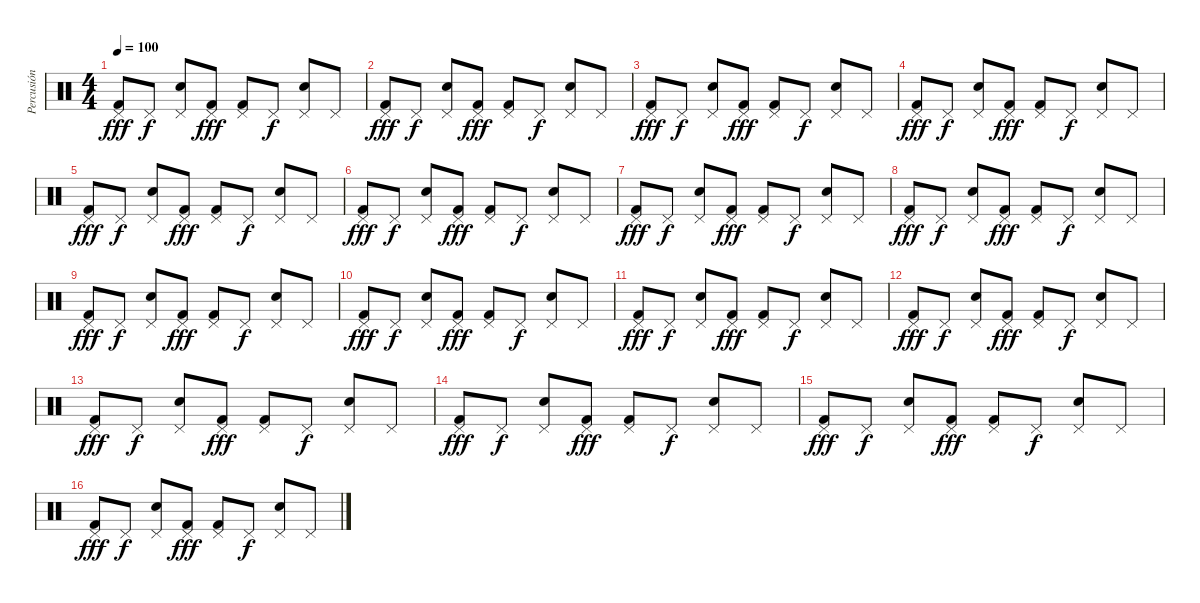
\track ("Percusión" "Percusión") {instrument percussion}
\staff {score}
\articulation defaults
\ts (4 4)
\tempo 100
\clef neutral
\ks c
("Pedal Hi-Hat (hit)" "Kick (hit) 2").8{dy fff} "Pedal Hi-Hat (hit)".8{dy f} ("Pedal Hi-Hat (hit)" "Snare (hit) 2").8 ("Pedal Hi-Hat (hit)" "Kick (hit) 2").8{dy fff} ("Pedal Hi-Hat (hit)" "Kick (hit) 2").8 "Pedal Hi-Hat (hit)".8{dy f} ("Pedal Hi-Hat (hit)" "Snare (hit) 2").8 "Pedal Hi-Hat (hit)".8 |
("Pedal Hi-Hat (hit)" "Kick (hit) 2").8{dy fff} "Pedal Hi-Hat (hit)".8{dy f} ("Pedal Hi-Hat (hit)" "Snare (hit) 2").8 ("Pedal Hi-Hat (hit)" "Kick (hit) 2").8{dy fff} ("Pedal Hi-Hat (hit)" "Kick (hit) 2").8 "Pedal Hi-Hat (hit)".8{dy f} ("Pedal Hi-Hat (hit)" "Snare (hit) 2").8 "Pedal Hi-Hat (hit)".8 |
("Pedal Hi-Hat (hit)" "Kick (hit) 2").8{dy fff} "Pedal Hi-Hat (hit)".8{dy f} ("Pedal Hi-Hat (hit)" "Snare (hit) 2").8 ("Pedal Hi-Hat (hit)" "Kick (hit) 2").8{dy fff} ("Pedal Hi-Hat (hit)" "Kick (hit) 2").8 "Pedal Hi-Hat (hit)".8{dy f} ("Pedal Hi-Hat (hit)" "Snare (hit) 2").8 "Pedal Hi-Hat (hit)".8 |
("Pedal Hi-Hat (hit)" "Kick (hit) 2").8{dy fff} "Pedal Hi-Hat (hit)".8{dy f} ("Pedal Hi-Hat (hit)" "Snare (hit) 2").8 ("Pedal Hi-Hat (hit)" "Kick (hit) 2").8{dy fff} ("Pedal Hi-Hat (hit)" "Kick (hit) 2").8 "Pedal Hi-Hat (hit)".8{dy f} ("Pedal Hi-Hat (hit)" "Snare (hit) 2").8 "Pedal Hi-Hat (hit)".8 |
("Pedal Hi-Hat (hit)" "Kick (hit) 2").8{dy fff} "Pedal Hi-Hat (hit)".8{dy f} ("Pedal Hi-Hat (hit)" "Snare (hit) 2").8 ("Pedal Hi-Hat (hit)" "Kick (hit) 2").8{dy fff} ("Pedal Hi-Hat (hit)" "Kick (hit) 2").8 "Pedal Hi-Hat (hit)".8{dy f} ("Pedal Hi-Hat (hit)" "Snare (hit) 2").8 "Pedal Hi-Hat (hit)".8 |
("Pedal Hi-Hat (hit)" "Kick (hit) 2").8{dy fff} "Pedal Hi-Hat (hit)".8{dy f} ("Pedal Hi-Hat (hit)" "Snare (hit) 2").8 ("Pedal Hi-Hat (hit)" "Kick (hit) 2").8{dy fff} ("Pedal Hi-Hat (hit)" "Kick (hit) 2").8 "Pedal Hi-Hat (hit)".8{dy f} ("Pedal Hi-Hat (hit)" "Snare (hit) 2").8 "Pedal Hi-Hat (hit)".8 |
("Pedal Hi-Hat (hit)" "Kick (hit) 2").8{dy fff} "Pedal Hi-Hat (hit)".8{dy f} ("Pedal Hi-Hat (hit)" "Snare (hit) 2").8 ("Pedal Hi-Hat (hit)" "Kick (hit) 2").8{dy fff} ("Pedal Hi-Hat (hit)" "Kick (hit) 2").8 "Pedal Hi-Hat (hit)".8{dy f} ("Pedal Hi-Hat (hit)" "Snare (hit) 2").8 "Pedal Hi-Hat (hit)".8 |
("Pedal Hi-Hat (hit)" "Kick (hit) 2").8{dy fff} "Pedal Hi-Hat (hit)".8{dy f} ("Pedal Hi-Hat (hit)" "Snare (hit) 2").8 ("Pedal Hi-Hat (hit)" "Kick (hit) 2").8{dy fff} ("Pedal Hi-Hat (hit)" "Kick (hit) 2").8 "Pedal Hi-Hat (hit)".8{dy f} ("Pedal Hi-Hat (hit)" "Snare (hit) 2").8 "Pedal Hi-Hat (hit)".8 |
("Pedal Hi-Hat (hit)" "Kick (hit) 2").8{dy fff} "Pedal Hi-Hat (hit)".8{dy f} ("Pedal Hi-Hat (hit)" "Snare (hit) 2").8 ("Pedal Hi-Hat (hit)" "Kick (hit) 2").8{dy fff} ("Pedal Hi-Hat (hit)" "Kick (hit) 2").8 "Pedal Hi-Hat (hit)".8{dy f} ("Pedal Hi-Hat (hit)" "Snare (hit) 2").8 "Pedal Hi-Hat (hit)".8 |
("Pedal Hi-Hat (hit)" "Kick (hit) 2").8{dy fff} "Pedal Hi-Hat (hit)".8{dy f} ("Pedal Hi-Hat (hit)" "Snare (hit) 2").8 ("Pedal Hi-Hat (hit)" "Kick (hit) 2").8{dy fff} ("Pedal Hi-Hat (hit)" "Kick (hit) 2").8 "Pedal Hi-Hat (hit)".8{dy f} ("Pedal Hi-Hat (hit)" "Snare (hit) 2").8 "Pedal Hi-Hat (hit)".8 |
("Pedal Hi-Hat (hit)" "Kick (hit) 2").8{dy fff} "Pedal Hi-Hat (hit)".8{dy f} ("Pedal Hi-Hat (hit)" "Snare (hit) 2").8 ("Pedal Hi-Hat (hit)" "Kick (hit) 2").8{dy fff} ("Pedal Hi-Hat (hit)" "Kick (hit) 2").8 "Pedal Hi-Hat (hit)".8{dy f} ("Pedal Hi-Hat (hit)" "Snare (hit) 2").8 "Pedal Hi-Hat (hit)".8 |
("Pedal Hi-Hat (hit)" "Kick (hit) 2").8{dy fff} "Pedal Hi-Hat (hit)".8{dy f} ("Pedal Hi-Hat (hit)" "Snare (hit) 2").8 ("Pedal Hi-Hat (hit)" "Kick (hit) 2").8{dy fff} ("Pedal Hi-Hat (hit)" "Kick (hit) 2").8 "Pedal Hi-Hat (hit)".8{dy f} ("Pedal Hi-Hat (hit)" "Snare (hit) 2").8 "Pedal Hi-Hat (hit)".8 |
("Pedal Hi-Hat (hit)" "Kick (hit) 2").8{dy fff} "Pedal Hi-Hat (hit)".8{dy f} ("Pedal Hi-Hat (hit)" "Snare (hit) 2").8 ("Pedal Hi-Hat (hit)" "Kick (hit) 2").8{dy fff} ("Pedal Hi-Hat (hit)" "Kick (hit) 2").8 "Pedal Hi-Hat (hit)".8{dy f} ("Pedal Hi-Hat (hit)" "Snare (hit) 2").8 "Pedal Hi-Hat (hit)".8 |
("Pedal Hi-Hat (hit)" "Kick (hit) 2").8{dy fff} "Pedal Hi-Hat (hit)".8{dy f} ("Pedal Hi-Hat (hit)" "Snare (hit) 2").8 ("Pedal Hi-Hat (hit)" "Kick (hit) 2").8{dy fff} ("Pedal Hi-Hat (hit)" "Kick (hit) 2").8 "Pedal Hi-Hat (hit)".8{dy f} ("Pedal Hi-Hat (hit)" "Snare (hit) 2").8 "Pedal Hi-Hat (hit)".8 |
("Pedal Hi-Hat (hit)" "Kick (hit) 2").8{dy fff} "Pedal Hi-Hat (hit)".8{dy f} ("Pedal Hi-Hat (hit)" "Snare (hit) 2").8 ("Pedal Hi-Hat (hit)" "Kick (hit) 2").8{dy fff} ("Pedal Hi-Hat (hit)" "Kick (hit) 2").8 "Pedal Hi-Hat (hit)".8{dy f} ("Pedal Hi-Hat (hit)" "Snare (hit) 2").8 "Pedal Hi-Hat (hit)".8 |
("Pedal Hi-Hat (hit)" "Kick (hit) 2").8{dy fff} "Pedal Hi-Hat (hit)".8{dy f} ("Pedal Hi-Hat (hit)" "Snare (hit) 2").8 ("Pedal Hi-Hat (hit)" "Kick (hit) 2").8{dy fff} ("Pedal Hi-Hat (hit)" "Kick (hit) 2").8 "Pedal Hi-Hat (hit)".8{dy f} ("Pedal Hi-Hat (hit)" "Snare (hit) 2").8 "Pedal Hi-Hat (hit)".8
